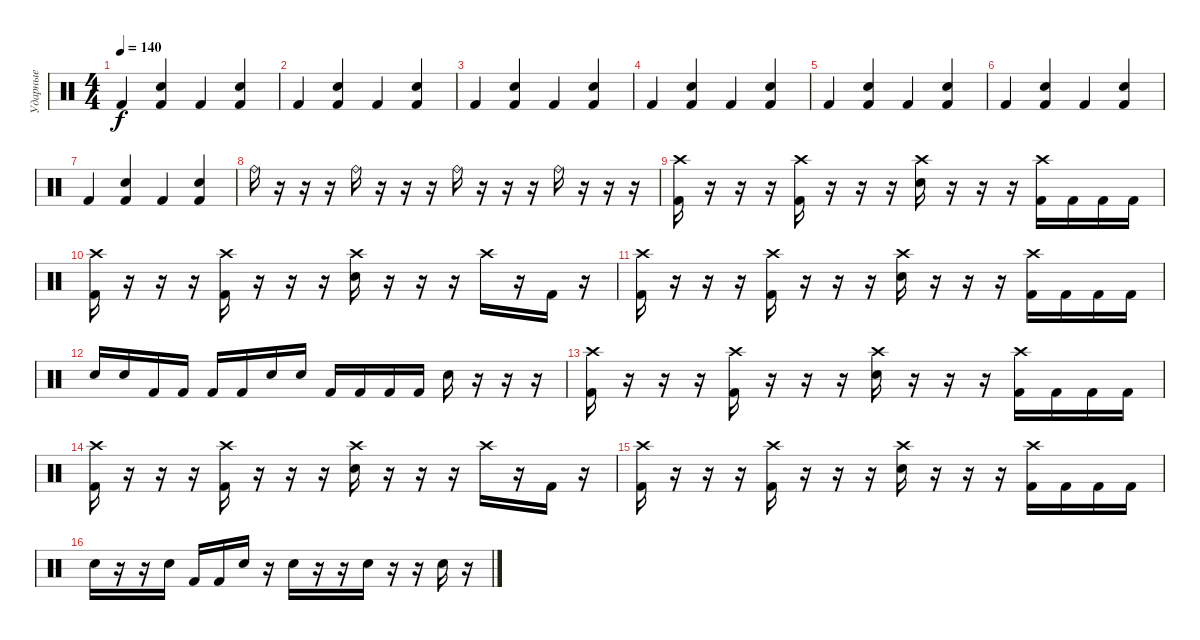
\track ("Ударные" "Ударные") {instrument percussion}
\staff {score}
\articulation defaults
\ts (4 4)
\tempo 140
\clef neutral
\ks c "Kick (hit) 2".4{dy f}
("Snare (hit) 2" "Kick (hit) 2").4 "Kick (hit) 2".4 ("Snare (hit) 2" "Kick (hit) 2").4 |
"Kick (hit) 2".4 ("Snare (hit) 2" "Kick (hit) 2").4 "Kick (hit) 2".4 ("Snare (hit) 2" "Kick (hit) 2").4 |
"Kick (hit) 2".4 ("Snare (hit) 2" "Kick (hit) 2").4 "Kick (hit) 2".4 ("Snare (hit) 2" "Kick (hit) 2").4 |
"Kick (hit) 2".4 ("Snare (hit) 2" "Kick (hit) 2").4 "Kick (hit) 2".4 ("Snare (hit) 2" "Kick (hit) 2").4 |
"Kick (hit) 2".4 ("Snare (hit) 2" "Kick (hit) 2").4 "Kick (hit) 2".4 ("Snare (hit) 2" "Kick (hit) 2").4 |
"Kick (hit) 2".4 ("Snare (hit) 2" "Kick (hit) 2").4 "Kick (hit) 2".4 ("Snare (hit) 2" "Kick (hit) 2").4 |
"Kick (hit) 2".4 ("Snare (hit) 2" "Kick (hit) 2").4 "Kick (hit) 2".4 ("Snare (hit) 2" "Kick (hit) 2").4 |
"Ride (bell)".16 r.16 r.16 r.16 "Ride (bell)".16 r.16 r.16 r.16 "Ride (bell)".16 r.16 r.16 r.16 "Ride (bell)".16 r.16 r.16 r.16 |
("Crash high (hit)" "Kick (hit) 2").16 r.16 r.16 r.16 ("Crash high (hit)" "Kick (hit) 2").16 r.16 r.16 r.16 ("Crash high (hit)" "Electric Snare (hit)").16 r.16 r.16 r.16 ("Crash high (hit)" "Kick (hit) 2").16 "Kick (hit) 2".16 "Kick (hit) 2".16 "Kick (hit) 2".16 |
("Crash high (hit)" "Kick (hit) 2").16 r.16 r.16 r.16 ("Crash high (hit)" "Kick (hit) 2").16 r.16 r.16 r.16 ("Crash high (hit)" "Electric Snare (hit)").16 r.16 r.16 r.16 "Crash high (hit)".16 r.16 "Kick (hit) 2".16 r.16 |
("Crash high (hit)" "Kick (hit) 2").16 r.16 r.16 r.16 ("Crash high (hit)" "Kick (hit) 2").16 r.16 r.16 r.16 ("Crash high (hit)" "Electric Snare (hit)").16 r.16 r.16 r.16 ("Crash high (hit)" "Kick (hit) 2").16 "Kick (hit) 2".16 "Kick (hit) 2".16 "Kick (hit) 2".16 |
"Electric Snare (hit)".16 "Electric Snare (hit)".16 "Kick (hit) 2".16 "Kick (hit) 2".16 "Kick (hit) 2".16 "Kick (hit) 2".16 "Electric Snare (hit)".16 "Electric Snare (hit)".16 "Kick (hit) 2".16 "Kick (hit) 2".16 "Kick (hit) 2".16 "Kick (hit) 2".16 "Electric Snare (hit)".16 r.16 r.16 r.16 |
("Crash high (hit)" "Kick (hit) 2").16 r.16 r.16 r.16 ("Crash high (hit)" "Kick (hit) 2").16 r.16 r.16 r.16 ("Crash high (hit)" "Electric Snare (hit)").16 r.16 r.16 r.16 ("Crash high (hit)" "Kick (hit) 2").16 "Kick (hit) 2".16 "Kick (hit) 2".16 "Kick (hit) 2".16 |
("Crash high (hit)" "Kick (hit) 2").16 r.16 r.16 r.16 ("Crash high (hit)" "Kick (hit) 2").16 r.16 r.16 r.16 ("Crash high (hit)" "Electric Snare (hit)").16 r.16 r.16 r.16 "Crash high (hit)".16 r.16 "Kick (hit) 2".16 r.16 |
("Crash high (hit)" "Kick (hit) 2").16 r.16 r.16 r.16 ("Crash high (hit)" "Kick (hit) 2").16 r.16 r.16 r.16 ("Crash high (hit)" "Electric Snare (hit)").16 r.16 r.16 r.16 ("Crash high (hit)" "Kick (hit) 2").16 "Kick (hit) 2".16 "Kick (hit) 2".16 "Kick (hit) 2".16 |
"Electric Snare (hit)".16 r.16 r.16 "Electric Snare (hit)".16 "Kick (hit) 2".16 "Kick (hit) 2".16 "Electric Snare (hit)".16 r.16 "Electric Snare (hit)".16 r.16 r.16 "Electric Snare (hit)".16 r.16 r.16 "Electric Snare (hit)".16 r.16
